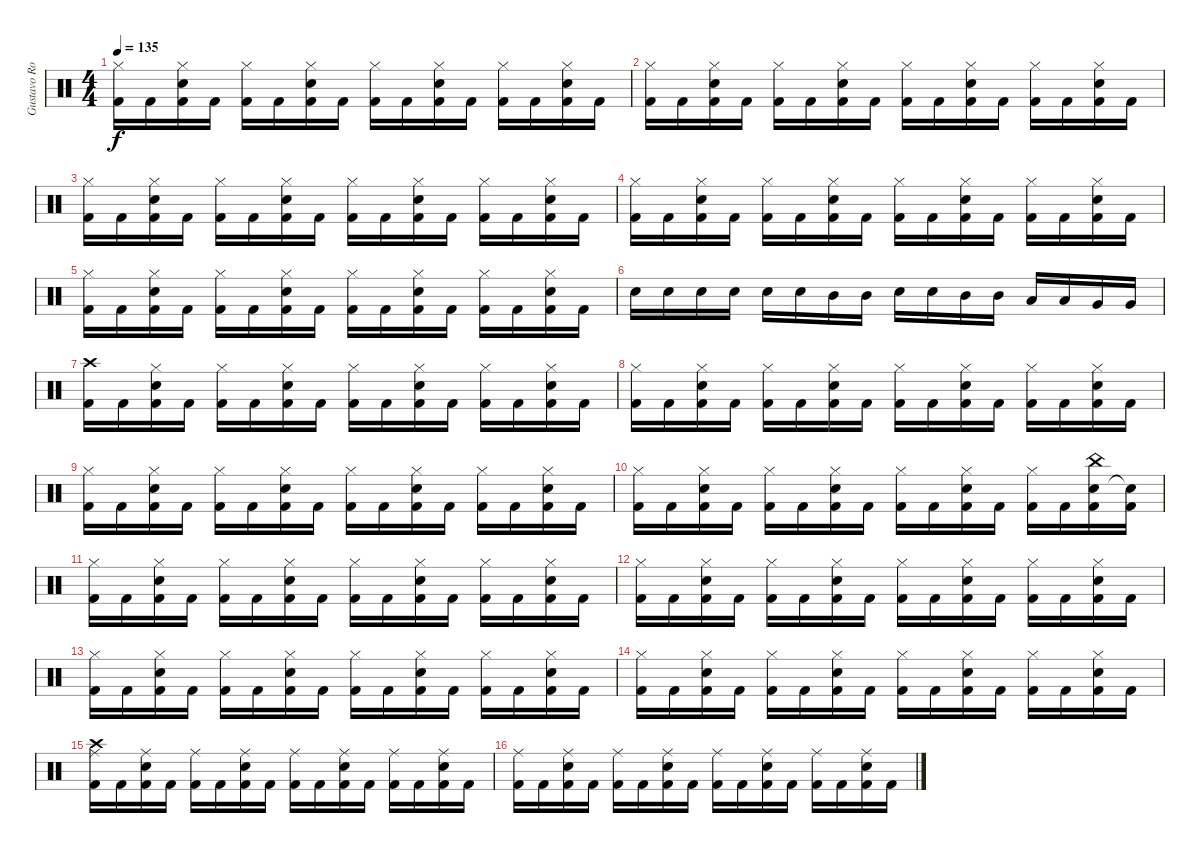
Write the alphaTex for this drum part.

\track ("Gustavo Rowek" "Gustavo Ro") {instrument percussion}
\staff {score}
\articulation defaults
\ts (4 4)
\tempo 135
\clef neutral
\ks c
("Kick (hit) 2" "Hi-Hat (closed)").16{dy f} "Kick (hit) 2".16 ("Kick (hit) 2" "Hi-Hat (closed)" "Electric Snare (hit)").16 "Kick (hit) 2".16 ("Kick (hit) 2" "Hi-Hat (closed)").16 "Kick (hit) 2".16 ("Kick (hit) 2" "Hi-Hat (closed)" "Electric Snare (hit)").16 "Kick (hit) 2".16 ("Kick (hit) 2" "Hi-Hat (closed)").16 "Kick (hit) 2".16 ("Kick (hit) 2" "Hi-Hat (closed)" "Electric Snare (hit)").16 "Kick (hit) 2".16 ("Kick (hit) 2" "Hi-Hat (closed)").16 "Kick (hit) 2".16 ("Kick (hit) 2" "Hi-Hat (closed)" "Electric Snare (hit)").16 "Kick (hit) 2".16 |
("Kick (hit) 2" "Hi-Hat (closed)").16 "Kick (hit) 2".16 ("Kick (hit) 2" "Hi-Hat (closed)" "Electric Snare (hit)").16 "Kick (hit) 2".16 ("Kick (hit) 2" "Hi-Hat (closed)").16 "Kick (hit) 2".16 ("Kick (hit) 2" "Hi-Hat (closed)" "Electric Snare (hit)").16 "Kick (hit) 2".16 ("Kick (hit) 2" "Hi-Hat (closed)").16 "Kick (hit) 2".16 ("Kick (hit) 2" "Hi-Hat (closed)" "Electric Snare (hit)").16 "Kick (hit) 2".16 ("Kick (hit) 2" "Hi-Hat (closed)").16 "Kick (hit) 2".16 ("Kick (hit) 2" "Hi-Hat (closed)" "Electric Snare (hit)").16 "Kick (hit) 2".16 |
("Kick (hit) 2" "Hi-Hat (closed)").16 "Kick (hit) 2".16 ("Kick (hit) 2" "Hi-Hat (closed)" "Electric Snare (hit)").16 "Kick (hit) 2".16 ("Kick (hit) 2" "Hi-Hat (closed)").16 "Kick (hit) 2".16 ("Kick (hit) 2" "Hi-Hat (closed)" "Electric Snare (hit)").16 "Kick (hit) 2".16 ("Kick (hit) 2" "Hi-Hat (closed)").16 "Kick (hit) 2".16 ("Kick (hit) 2" "Hi-Hat (closed)" "Electric Snare (hit)").16 "Kick (hit) 2".16 ("Kick (hit) 2" "Hi-Hat (closed)").16 "Kick (hit) 2".16 ("Kick (hit) 2" "Hi-Hat (closed)" "Electric Snare (hit)").16 "Kick (hit) 2".16 |
("Kick (hit) 2" "Hi-Hat (closed)").16 "Kick (hit) 2".16 ("Kick (hit) 2" "Hi-Hat (closed)" "Electric Snare (hit)").16 "Kick (hit) 2".16 ("Kick (hit) 2" "Hi-Hat (closed)").16 "Kick (hit) 2".16 ("Kick (hit) 2" "Hi-Hat (closed)" "Electric Snare (hit)").16 "Kick (hit) 2".16 ("Kick (hit) 2" "Hi-Hat (closed)").16 "Kick (hit) 2".16 ("Kick (hit) 2" "Hi-Hat (closed)" "Electric Snare (hit)").16 "Kick (hit) 2".16 ("Kick (hit) 2" "Hi-Hat (closed)").16 "Kick (hit) 2".16 ("Kick (hit) 2" "Hi-Hat (closed)" "Electric Snare (hit)").16 "Kick (hit) 2".16 |
("Kick (hit) 2" "Hi-Hat (closed)").16 "Kick (hit) 2".16 ("Kick (hit) 2" "Hi-Hat (closed)" "Electric Snare (hit)").16 "Kick (hit) 2".16 ("Kick (hit) 2" "Hi-Hat (closed)").16 "Kick (hit) 2".16 ("Kick (hit) 2" "Hi-Hat (closed)" "Electric Snare (hit)").16 "Kick (hit) 2".16 ("Kick (hit) 2" "Hi-Hat (closed)").16 "Kick (hit) 2".16 ("Kick (hit) 2" "Hi-Hat (closed)" "Electric Snare (hit)").16 "Kick (hit) 2".16 ("Kick (hit) 2" "Hi-Hat (closed)").16 "Kick (hit) 2".16 ("Kick (hit) 2" "Hi-Hat (closed)" "Electric Snare (hit)").16 "Kick (hit) 2".16 |
"Electric Snare (hit)".16 "Electric Snare (hit)".16 "Electric Snare (hit)".16 "Electric Snare (hit)".16 "Electric Snare (hit)".16 "Electric Snare (hit)".16 "Mid Tom (hit)".16 "Mid Tom (hit)".16 "Electric Snare (hit)".16 "Electric Snare (hit)".16 "Mid Tom (hit)".16 "Mid Tom (hit)".16 "Low Tom (hit)".16 "Low Tom (hit)".16 "Very Low Tom (hit)".16 "Very Low Tom (hit)".16 |
("Kick (hit) 2" "Crash high (hit)").16 "Kick (hit) 2".16 ("Kick (hit) 2" "Hi-Hat (closed)" "Electric Snare (hit)").16 "Kick (hit) 2".16 ("Kick (hit) 2" "Hi-Hat (closed)").16 "Kick (hit) 2".16 ("Kick (hit) 2" "Hi-Hat (closed)" "Electric Snare (hit)").16 "Kick (hit) 2".16 ("Kick (hit) 2" "Hi-Hat (closed)").16 "Kick (hit) 2".16 ("Kick (hit) 2" "Hi-Hat (closed)" "Electric Snare (hit)").16 "Kick (hit) 2".16 ("Kick (hit) 2" "Hi-Hat (closed)").16 "Kick (hit) 2".16 ("Kick (hit) 2" "Hi-Hat (closed)" "Electric Snare (hit)").16 "Kick (hit) 2".16 |
("Kick (hit) 2" "Hi-Hat (closed)").16 "Kick (hit) 2".16 ("Kick (hit) 2" "Hi-Hat (closed)" "Electric Snare (hit)").16 "Kick (hit) 2".16 ("Kick (hit) 2" "Hi-Hat (closed)").16 "Kick (hit) 2".16 ("Kick (hit) 2" "Hi-Hat (closed)" "Electric Snare (hit)").16 "Kick (hit) 2".16 ("Kick (hit) 2" "Hi-Hat (closed)").16 "Kick (hit) 2".16 ("Kick (hit) 2" "Hi-Hat (closed)" "Electric Snare (hit)").16 "Kick (hit) 2".16 ("Kick (hit) 2" "Hi-Hat (closed)").16 "Kick (hit) 2".16 ("Kick (hit) 2" "Hi-Hat (closed)" "Electric Snare (hit)").16 "Kick (hit) 2".16 |
("Kick (hit) 2" "Hi-Hat (closed)").16 "Kick (hit) 2".16 ("Kick (hit) 2" "Hi-Hat (closed)" "Electric Snare (hit)").16 "Kick (hit) 2".16 ("Kick (hit) 2" "Hi-Hat (closed)").16 "Kick (hit) 2".16 ("Kick (hit) 2" "Hi-Hat (closed)" "Electric Snare (hit)").16 "Kick (hit) 2".16 ("Kick (hit) 2" "Hi-Hat (closed)").16 "Kick (hit) 2".16 ("Kick (hit) 2" "Hi-Hat (closed)" "Electric Snare (hit)").16 "Kick (hit) 2".16 ("Kick (hit) 2" "Hi-Hat (closed)").16 "Kick (hit) 2".16 ("Kick (hit) 2" "Hi-Hat (closed)" "Electric Snare (hit)").16 "Kick (hit) 2".16 |
("Kick (hit) 2" "Hi-Hat (closed)").16 "Kick (hit) 2".16 ("Kick (hit) 2" "Hi-Hat (closed)" "Electric Snare (hit)").16 "Kick (hit) 2".16 ("Kick (hit) 2" "Hi-Hat (closed)").16 "Kick (hit) 2".16 ("Kick (hit) 2" "Hi-Hat (closed)" "Electric Snare (hit)").16 "Kick (hit) 2".16 ("Kick (hit) 2" "Hi-Hat (closed)").16 "Kick (hit) 2".16 ("Kick (hit) 2" "Hi-Hat (closed)" "Electric Snare (hit)").16 "Kick (hit) 2".16 ("Kick (hit) 2" "Hi-Hat (closed)").16 "Kick (hit) 2".16 ("Kick (hit) 2" "Electric Snare (hit)" "China (hit)").16 ("Kick (hit) 2" "Snare (hit)"{t}).16 |
("Kick (hit) 2" "Hi-Hat (closed)").16 "Kick (hit) 2".16 ("Kick (hit) 2" "Hi-Hat (closed)" "Electric Snare (hit)").16 "Kick (hit) 2".16 ("Kick (hit) 2" "Hi-Hat (closed)").16 "Kick (hit) 2".16 ("Kick (hit) 2" "Hi-Hat (closed)" "Electric Snare (hit)").16 "Kick (hit) 2".16 ("Kick (hit) 2" "Hi-Hat (closed)").16 "Kick (hit) 2".16 ("Kick (hit) 2" "Hi-Hat (closed)" "Electric Snare (hit)").16 "Kick (hit) 2".16 ("Kick (hit) 2" "Hi-Hat (closed)").16 "Kick (hit) 2".16 ("Kick (hit) 2" "Hi-Hat (closed)" "Electric Snare (hit)").16 "Kick (hit) 2".16 |
("Kick (hit) 2" "Hi-Hat (closed)").16 "Kick (hit) 2".16 ("Kick (hit) 2" "Hi-Hat (closed)" "Electric Snare (hit)").16 "Kick (hit) 2".16 ("Kick (hit) 2" "Hi-Hat (closed)").16 "Kick (hit) 2".16 ("Kick (hit) 2" "Hi-Hat (closed)" "Electric Snare (hit)").16 "Kick (hit) 2".16 ("Kick (hit) 2" "Hi-Hat (closed)").16 "Kick (hit) 2".16 ("Kick (hit) 2" "Hi-Hat (closed)" "Electric Snare (hit)").16 "Kick (hit) 2".16 ("Kick (hit) 2" "Hi-Hat (closed)").16 "Kick (hit) 2".16 ("Kick (hit) 2" "Hi-Hat (closed)" "Electric Snare (hit)").16 "Kick (hit) 2".16 |
("Kick (hit) 2" "Hi-Hat (closed)").16 "Kick (hit) 2".16 ("Kick (hit) 2" "Hi-Hat (closed)" "Electric Snare (hit)").16 "Kick (hit) 2".16 ("Kick (hit) 2" "Hi-Hat (closed)").16 "Kick (hit) 2".16 ("Kick (hit) 2" "Hi-Hat (closed)" "Electric Snare (hit)").16 "Kick (hit) 2".16 ("Kick (hit) 2" "Hi-Hat (closed)").16 "Kick (hit) 2".16 ("Kick (hit) 2" "Hi-Hat (closed)" "Electric Snare (hit)").16 "Kick (hit) 2".16 ("Kick (hit) 2" "Hi-Hat (closed)").16 "Kick (hit) 2".16 ("Kick (hit) 2" "Hi-Hat (closed)" "Electric Snare (hit)").16 "Kick (hit) 2".16 |
("Kick (hit) 2" "Hi-Hat (closed)").16 "Kick (hit) 2".16 ("Kick (hit) 2" "Hi-Hat (closed)" "Electric Snare (hit)").16 "Kick (hit) 2".16 ("Kick (hit) 2" "Hi-Hat (closed)").16 "Kick (hit) 2".16 ("Kick (hit) 2" "Hi-Hat (closed)" "Electric Snare (hit)").16 "Kick (hit) 2".16 ("Kick (hit) 2" "Hi-Hat (closed)").16 "Kick (hit) 2".16 ("Kick (hit) 2" "Hi-Hat (closed)" "Electric Snare (hit)").16 "Kick (hit) 2".16 ("Kick (hit) 2" "Hi-Hat (closed)").16 "Kick (hit) 2".16 ("Kick (hit) 2" "Hi-Hat (closed)" "Electric Snare (hit)").16 "Kick (hit) 2".16 |
("Kick (hit) 2" "Ride (middle)" "Crash high (hit)").16 "Kick (hit) 2".16 ("Kick (hit) 2" "Ride (middle)" "Electric Snare (hit)").16 "Kick (hit) 2".16 ("Kick (hit) 2" "Ride (middle)").16 "Kick (hit) 2".16 ("Kick (hit) 2" "Ride (middle)" "Electric Snare (hit)").16 "Kick (hit) 2".16 ("Kick (hit) 2" "Ride (middle)").16 "Kick (hit) 2".16 ("Kick (hit) 2" "Ride (middle)" "Electric Snare (hit)").16 "Kick (hit) 2".16 ("Kick (hit) 2" "Ride (middle)").16 "Kick (hit) 2".16 ("Kick (hit) 2" "Ride (middle)" "Electric Snare (hit)").16 "Kick (hit) 2".16 |
("Kick (hit) 2" "Ride (middle)").16 "Kick (hit) 2".16 ("Kick (hit) 2" "Ride (middle)" "Electric Snare (hit)").16 "Kick (hit) 2".16 ("Kick (hit) 2" "Ride (middle)").16 "Kick (hit) 2".16 ("Kick (hit) 2" "Ride (middle)" "Electric Snare (hit)").16 "Kick (hit) 2".16 ("Kick (hit) 2" "Ride (middle)").16 "Kick (hit) 2".16 ("Kick (hit) 2" "Ride (middle)" "Electric Snare (hit)").16 "Kick (hit) 2".16 ("Kick (hit) 2" "Ride (middle)").16 "Kick (hit) 2".16 ("Kick (hit) 2" "Ride (middle)" "Electric Snare (hit)").16 "Kick (hit) 2".16
